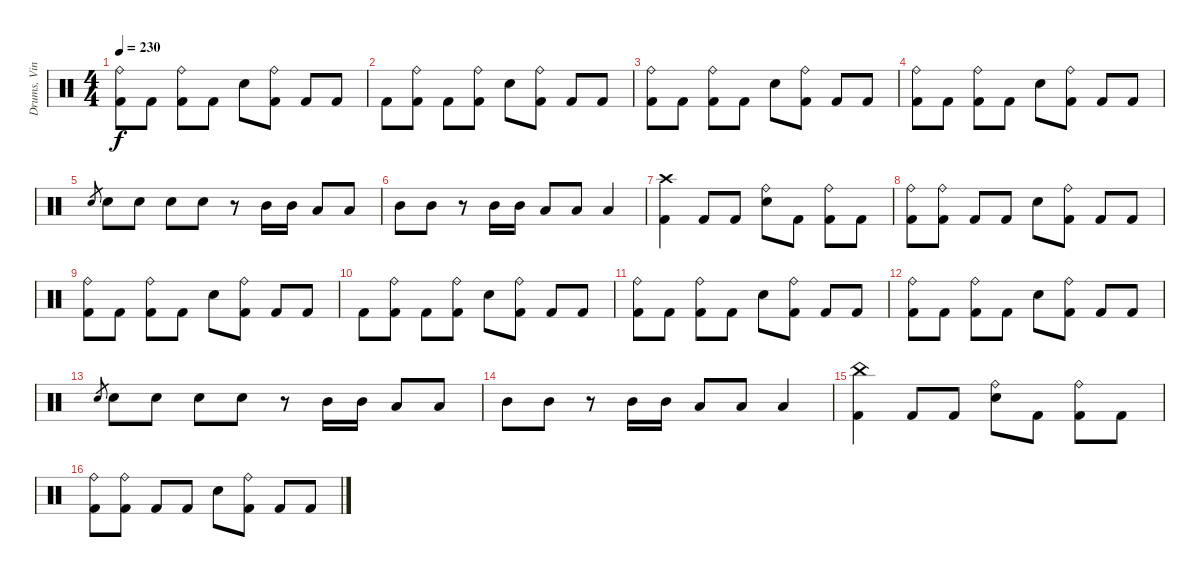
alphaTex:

\track ("Drums, Vinnie" "Drums, Vin") {instrument percussion}
\staff {score}
\articulation defaults
\ts (4 4)
\tempo 230
\clef neutral
\ks c
("Ride (bell)" "Kick (hit) 2").8{dy f} "Kick (hit) 2".8 ("Ride (bell)" "Kick (hit) 2").8 "Kick (hit) 2".8 "Electric Snare (hit)".8 ("Ride (bell)" "Kick (hit) 2").8 "Kick (hit) 2".8 "Kick (hit) 2".8 |
"Kick (hit) 2".8 ("Ride (bell)" "Kick (hit) 2").8 "Kick (hit) 2".8 ("Ride (bell)" "Kick (hit) 2").8 "Electric Snare (hit)".8 ("Ride (bell)" "Kick (hit) 2").8 "Kick (hit) 2".8 "Kick (hit) 2".8 |
("Ride (bell)" "Kick (hit) 2").8 "Kick (hit) 2".8 ("Ride (bell)" "Kick (hit) 2").8 "Kick (hit) 2".8 "Electric Snare (hit)".8 ("Ride (bell)" "Kick (hit) 2").8 "Kick (hit) 2".8 "Kick (hit) 2".8 |
("Ride (bell)" "Kick (hit) 2").8 "Kick (hit) 2".8 ("Ride (bell)" "Kick (hit) 2").8 "Kick (hit) 2".8 "Electric Snare (hit)".8 ("Ride (bell)" "Kick (hit) 2").8 "Kick (hit) 2".8 "Kick (hit) 2".8 |
"Electric Snare (hit)".8{gr} "Electric Snare (hit)".8 "Electric Snare (hit)".8 "Electric Snare (hit)".8 "Electric Snare (hit)".8 r.8 "Mid Tom (hit)".16 "Mid Tom (hit)".16 "Low Tom (hit)".8 "Low Tom (hit)".8 |
"Mid Tom (hit)".8 "Mid Tom (hit)".8 r.8 "Mid Tom (hit)".16 "Mid Tom (hit)".16 "Low Tom (hit)".8 "Low Tom (hit)".8 "Low Tom (hit)".4 |
("Crash high (hit)" "Kick (hit) 2").4 "Kick (hit) 2".8 "Kick (hit) 2".8 ("Ride (bell)" "Electric Snare (hit)").8 "Kick (hit) 2".8 ("Ride (bell)" "Kick (hit) 2").8 "Kick (hit) 2".8 |
("Ride (bell)" "Kick (hit) 2").8 ("Ride (bell)" "Kick (hit) 2").8 "Kick (hit) 2".8 "Kick (hit) 2".8 "Electric Snare (hit)".8 ("Ride (bell)" "Kick (hit) 2").8 "Kick (hit) 2".8 "Kick (hit) 2".8 |
("Ride (bell)" "Kick (hit) 2").8 "Kick (hit) 2".8 ("Ride (bell)" "Kick (hit) 2").8 "Kick (hit) 2".8 "Electric Snare (hit)".8 ("Ride (bell)" "Kick (hit) 2").8 "Kick (hit) 2".8 "Kick (hit) 2".8 |
"Kick (hit) 2".8 ("Ride (bell)" "Kick (hit) 2").8 "Kick (hit) 2".8 ("Ride (bell)" "Kick (hit) 2").8 "Electric Snare (hit)".8 ("Ride (bell)" "Kick (hit) 2").8 "Kick (hit) 2".8 "Kick (hit) 2".8 |
("Ride (bell)" "Kick (hit) 2").8 "Kick (hit) 2".8 ("Ride (bell)" "Kick (hit) 2").8 "Kick (hit) 2".8 "Electric Snare (hit)".8 ("Ride (bell)" "Kick (hit) 2").8 "Kick (hit) 2".8 "Kick (hit) 2".8 |
("Ride (bell)" "Kick (hit) 2").8 "Kick (hit) 2".8 ("Ride (bell)" "Kick (hit) 2").8 "Kick (hit) 2".8 "Electric Snare (hit)".8 ("Ride (bell)" "Kick (hit) 2").8 "Kick (hit) 2".8 "Kick (hit) 2".8 |
"Electric Snare (hit)".8{gr} "Electric Snare (hit)".8 "Electric Snare (hit)".8 "Electric Snare (hit)".8 "Electric Snare (hit)".8 r.8 "Mid Tom (hit)".16 "Mid Tom (hit)".16 "Low Tom (hit)".8 "Low Tom (hit)".8 |
"Mid Tom (hit)".8 "Mid Tom (hit)".8 r.8 "Mid Tom (hit)".16 "Mid Tom (hit)".16 "Low Tom (hit)".8 "Low Tom (hit)".8 "Low Tom (hit)".4 |
("China (hit)" "Kick (hit) 2").4 "Kick (hit) 2".8 "Kick (hit) 2".8 ("Ride (bell)" "Electric Snare (hit)").8 "Kick (hit) 2".8 ("Ride (bell)" "Kick (hit) 2").8 "Kick (hit) 2".8 |
("Ride (bell)" "Kick (hit) 2").8 ("Ride (bell)" "Kick (hit) 2").8 "Kick (hit) 2".8 "Kick (hit) 2".8 "Electric Snare (hit)".8 ("Ride (bell)" "Kick (hit) 2").8 "Kick (hit) 2".8 "Kick (hit) 2".8
